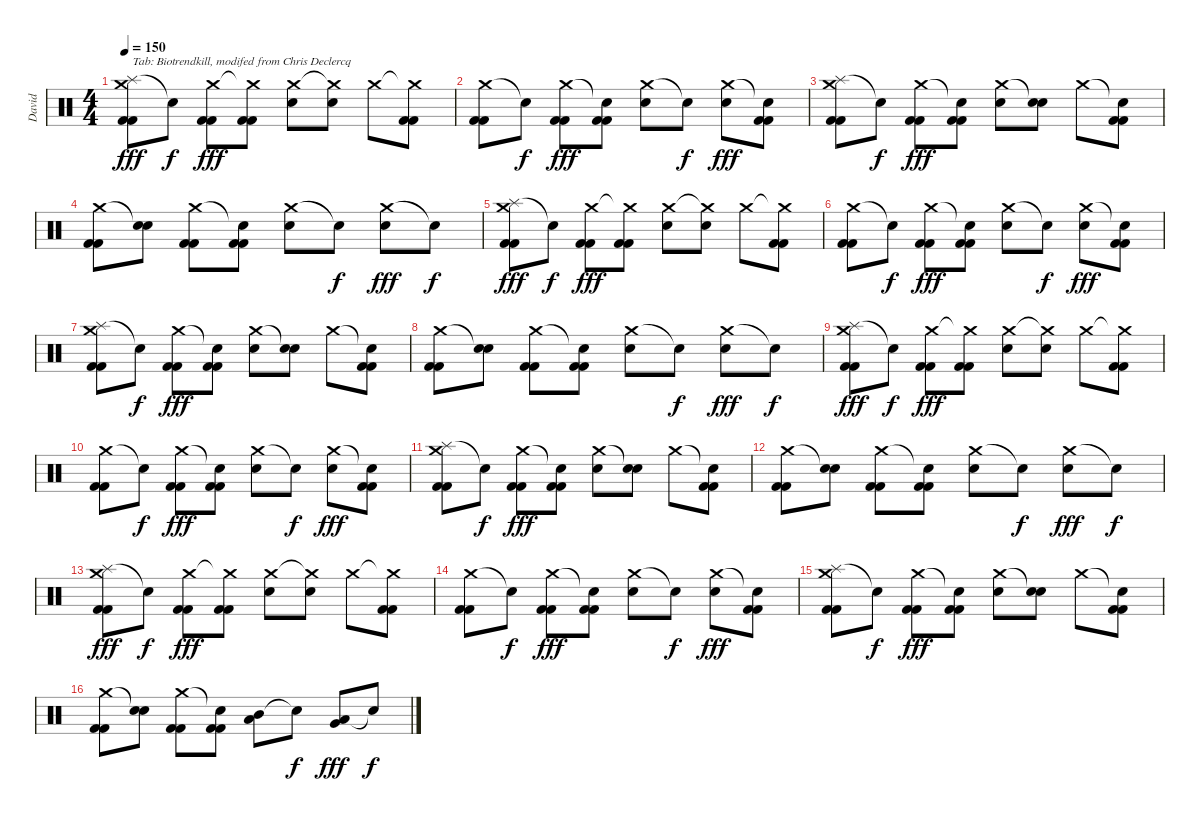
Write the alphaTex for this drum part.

\track ("David" "David") {instrument percussion}
\staff {score}
\articulation defaults
\ts (4 4)
\tempo 150
\clef neutral
\ks c
("Splash (hit)" "Crash medium (hit)" "Kick (hit) 2" "Kick (hit) 2").8{txt "Tab: Biotrendkill, modifed from Chris Declercq" dy fff} "Snare (hit)"{t}.8{dy f} ("Crash medium (hit)" "Kick (hit) 2" "Kick (hit) 2").8{dy fff} ("Crash medium (hit)"{t} "Kick (hit) 2" "Kick (hit) 2").8 ("Crash medium (hit)" "Electric Snare (hit)").8 ("Crash medium (hit)"{t} "Electric Snare (hit)").8 "Crash medium (hit)".8 ("Crash medium (hit)"{t} "Kick (hit) 2" "Kick (hit) 2").8 |
("Crash medium (hit)" "Kick (hit) 2" "Kick (hit) 2").8 "Snare (hit)"{t}.8{dy f} ("Crash medium (hit)" "Kick (hit) 2" "Kick (hit) 2").8{dy fff} ("Snare (hit)"{t} "Kick (hit) 2" "Kick (hit) 2").8 ("Crash medium (hit)" "Electric Snare (hit)").8 "Snare (hit)"{t}.8{dy f} ("Crash medium (hit)" "Electric Snare (hit)").8{dy fff} ("Snare (hit)"{t} "Kick (hit) 2" "Kick (hit) 2").8 |
("Splash (hit)" "Crash medium (hit)" "Kick (hit) 2" "Kick (hit) 2").8 "Snare (hit)"{t}.8{dy f} ("Crash medium (hit)" "Kick (hit) 2" "Kick (hit) 2").8{dy fff} ("Snare (hit)"{t} "Kick (hit) 2" "Kick (hit) 2").8 ("Crash medium (hit)" "Electric Snare (hit)").8 ("Snare (hit)"{t} "Electric Snare (hit)").8 "Crash medium (hit)".8 ("Snare (hit)"{t} "Kick (hit) 2" "Kick (hit) 2").8 |
("Crash medium (hit)" "Kick (hit) 2" "Kick (hit) 2").8 ("Snare (hit)"{t} "Electric Snare (hit)").8 ("Crash medium (hit)" "Kick (hit) 2" "Kick (hit) 2").8 ("Snare (hit)"{t} "Kick (hit) 2" "Kick (hit) 2").8 ("Crash medium (hit)" "Electric Snare (hit)").8 "Snare (hit)"{t}.8{dy f} ("Crash medium (hit)" "Electric Snare (hit)").8{dy fff} "Snare (hit)"{t}.8{dy f} |
("Splash (hit)" "Crash medium (hit)" "Kick (hit) 2" "Kick (hit) 2").8{dy fff} "Snare (hit)"{t}.8{dy f} ("Crash medium (hit)" "Kick (hit) 2" "Kick (hit) 2").8{dy fff} ("Crash medium (hit)"{t} "Kick (hit) 2" "Kick (hit) 2").8 ("Crash medium (hit)" "Electric Snare (hit)").8 ("Crash medium (hit)"{t} "Electric Snare (hit)").8 "Crash medium (hit)".8 ("Crash medium (hit)"{t} "Kick (hit) 2" "Kick (hit) 2").8 |
("Crash medium (hit)" "Kick (hit) 2" "Kick (hit) 2").8 "Snare (hit)"{t}.8{dy f} ("Crash medium (hit)" "Kick (hit) 2" "Kick (hit) 2").8{dy fff} ("Snare (hit)"{t} "Kick (hit) 2" "Kick (hit) 2").8 ("Crash medium (hit)" "Electric Snare (hit)").8 "Snare (hit)"{t}.8{dy f} ("Crash medium (hit)" "Electric Snare (hit)").8{dy fff} ("Snare (hit)"{t} "Kick (hit) 2" "Kick (hit) 2").8 |
("Splash (hit)" "Crash medium (hit)" "Kick (hit) 2" "Kick (hit) 2").8 "Snare (hit)"{t}.8{dy f} ("Crash medium (hit)" "Kick (hit) 2" "Kick (hit) 2").8{dy fff} ("Snare (hit)"{t} "Kick (hit) 2" "Kick (hit) 2").8 ("Crash medium (hit)" "Electric Snare (hit)").8 ("Snare (hit)"{t} "Electric Snare (hit)").8 "Crash medium (hit)".8 ("Snare (hit)"{t} "Kick (hit) 2" "Kick (hit) 2").8 |
("Crash medium (hit)" "Kick (hit) 2" "Kick (hit) 2").8 ("Snare (hit)"{t} "Electric Snare (hit)").8 ("Crash medium (hit)" "Kick (hit) 2" "Kick (hit) 2").8 ("Snare (hit)"{t} "Kick (hit) 2" "Kick (hit) 2").8 ("Crash medium (hit)" "Electric Snare (hit)").8 "Snare (hit)"{t}.8{dy f} ("Crash medium (hit)" "Electric Snare (hit)").8{dy fff} "Snare (hit)"{t}.8{dy f} |
("Splash (hit)" "Crash medium (hit)" "Kick (hit) 2" "Kick (hit) 2").8{dy fff} "Snare (hit)"{t}.8{dy f} ("Crash medium (hit)" "Kick (hit) 2" "Kick (hit) 2").8{dy fff} ("Crash medium (hit)"{t} "Kick (hit) 2" "Kick (hit) 2").8 ("Crash medium (hit)" "Electric Snare (hit)").8 ("Crash medium (hit)"{t} "Electric Snare (hit)").8 "Crash medium (hit)".8 ("Crash medium (hit)"{t} "Kick (hit) 2" "Kick (hit) 2").8 |
("Crash medium (hit)" "Kick (hit) 2" "Kick (hit) 2").8 "Snare (hit)"{t}.8{dy f} ("Crash medium (hit)" "Kick (hit) 2" "Kick (hit) 2").8{dy fff} ("Snare (hit)"{t} "Kick (hit) 2" "Kick (hit) 2").8 ("Crash medium (hit)" "Electric Snare (hit)").8 "Snare (hit)"{t}.8{dy f} ("Crash medium (hit)" "Electric Snare (hit)").8{dy fff} ("Snare (hit)"{t} "Kick (hit) 2" "Kick (hit) 2").8 |
("Splash (hit)" "Crash medium (hit)" "Kick (hit) 2" "Kick (hit) 2").8 "Snare (hit)"{t}.8{dy f} ("Crash medium (hit)" "Kick (hit) 2" "Kick (hit) 2").8{dy fff} ("Snare (hit)"{t} "Kick (hit) 2" "Kick (hit) 2").8 ("Crash medium (hit)" "Electric Snare (hit)").8 ("Snare (hit)"{t} "Electric Snare (hit)").8 "Crash medium (hit)".8 ("Snare (hit)"{t} "Kick (hit) 2" "Kick (hit) 2").8 |
("Crash medium (hit)" "Kick (hit) 2" "Kick (hit) 2").8 ("Snare (hit)"{t} "Electric Snare (hit)").8 ("Crash medium (hit)" "Kick (hit) 2" "Kick (hit) 2").8 ("Snare (hit)"{t} "Kick (hit) 2" "Kick (hit) 2").8 ("Crash medium (hit)" "Electric Snare (hit)").8 "Snare (hit)"{t}.8{dy f} ("Crash medium (hit)" "Electric Snare (hit)").8{dy fff} "Snare (hit)"{t}.8{dy f} |
("Splash (hit)" "Crash medium (hit)" "Kick (hit) 2" "Kick (hit) 2").8{dy fff} "Snare (hit)"{t}.8{dy f} ("Crash medium (hit)" "Kick (hit) 2" "Kick (hit) 2").8{dy fff} ("Crash medium (hit)"{t} "Kick (hit) 2" "Kick (hit) 2").8 ("Crash medium (hit)" "Electric Snare (hit)").8 ("Crash medium (hit)"{t} "Electric Snare (hit)").8 "Crash medium (hit)".8 ("Crash medium (hit)"{t} "Kick (hit) 2" "Kick (hit) 2").8 |
("Crash medium (hit)" "Kick (hit) 2" "Kick (hit) 2").8 "Snare (hit)"{t}.8{dy f} ("Crash medium (hit)" "Kick (hit) 2" "Kick (hit) 2").8{dy fff} ("Snare (hit)"{t} "Kick (hit) 2" "Kick (hit) 2").8 ("Crash medium (hit)" "Electric Snare (hit)").8 "Snare (hit)"{t}.8{dy f} ("Crash medium (hit)" "Electric Snare (hit)").8{dy fff} ("Snare (hit)"{t} "Kick (hit) 2" "Kick (hit) 2").8 |
("Splash (hit)" "Crash medium (hit)" "Kick (hit) 2" "Kick (hit) 2").8 "Snare (hit)"{t}.8{dy f} ("Crash medium (hit)" "Kick (hit) 2" "Kick (hit) 2").8{dy fff} ("Snare (hit)"{t} "Kick (hit) 2" "Kick (hit) 2").8 ("Crash medium (hit)" "Electric Snare (hit)").8 ("Snare (hit)"{t} "Electric Snare (hit)").8 "Crash medium (hit)".8 ("Snare (hit)"{t} "Kick (hit) 2" "Kick (hit) 2").8 |
("Crash medium (hit)" "Kick (hit) 2" "Kick (hit) 2").8 ("Snare (hit)"{t} "Electric Snare (hit)").8 ("Crash medium (hit)" "Kick (hit) 2" "Kick (hit) 2").8 ("Snare (hit)"{t} "Kick (hit) 2" "Kick (hit) 2").8 ("Mid Tom (hit)" "Low Tom (hit)").8 "Snare (hit)"{t}.8{dy f} ("Low Floor Tom (hit)" "Very Low Tom (hit)").8{dy fff} "Snare (hit)"{t}.8{dy f}
